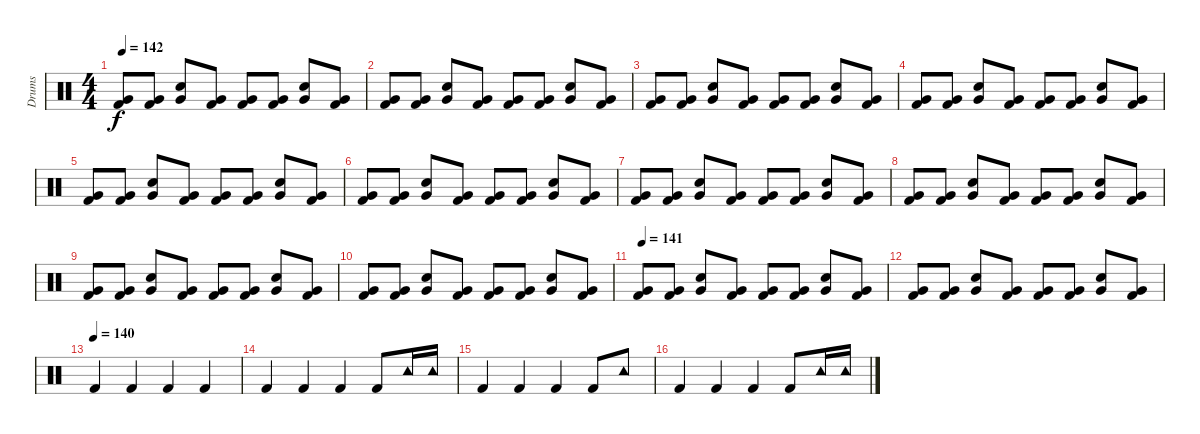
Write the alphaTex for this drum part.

\track ("Drums" "Drums") {instrument percussion}
\staff {score}
\articulation defaults
\ts (4 4)
\tempo 142
\clef neutral
\ks c
("Very Low Tom (hit)" "Kick (hit) 2").8{dy f} ("Very Low Tom (hit)" "Kick (hit) 2").8 ("Very Low Tom (hit)" "Snare (hit) 2").8 ("Very Low Tom (hit)" "Kick (hit) 2").8 ("Very Low Tom (hit)" "Kick (hit) 2").8 ("Very Low Tom (hit)" "Kick (hit) 2").8 ("Very Low Tom (hit)" "Snare (hit) 2").8 ("Very Low Tom (hit)" "Kick (hit) 2").8 |
("Very Low Tom (hit)" "Kick (hit) 2").8 ("Very Low Tom (hit)" "Kick (hit) 2").8 ("Very Low Tom (hit)" "Snare (hit) 2").8 ("Very Low Tom (hit)" "Kick (hit) 2").8 ("Very Low Tom (hit)" "Kick (hit) 2").8 ("Very Low Tom (hit)" "Kick (hit) 2").8 ("Very Low Tom (hit)" "Snare (hit) 2").8 ("Very Low Tom (hit)" "Kick (hit) 2").8 |
("Very Low Tom (hit)" "Kick (hit) 2").8 ("Very Low Tom (hit)" "Kick (hit) 2").8 ("Very Low Tom (hit)" "Snare (hit) 2").8 ("Very Low Tom (hit)" "Kick (hit) 2").8 ("Very Low Tom (hit)" "Kick (hit) 2").8 ("Very Low Tom (hit)" "Kick (hit) 2").8 ("Very Low Tom (hit)" "Snare (hit) 2").8 ("Very Low Tom (hit)" "Kick (hit) 2").8 |
("Very Low Tom (hit)" "Kick (hit) 2").8 ("Very Low Tom (hit)" "Kick (hit) 2").8 ("Very Low Tom (hit)" "Snare (hit) 2").8 ("Very Low Tom (hit)" "Kick (hit) 2").8 ("Very Low Tom (hit)" "Kick (hit) 2").8 ("Very Low Tom (hit)" "Kick (hit) 2").8 ("Very Low Tom (hit)" "Snare (hit) 2").8 ("Very Low Tom (hit)" "Kick (hit) 2").8 |
("Very Low Tom (hit)" "Kick (hit) 2").8 ("Very Low Tom (hit)" "Kick (hit) 2").8 ("Very Low Tom (hit)" "Snare (hit) 2").8 ("Very Low Tom (hit)" "Kick (hit) 2").8 ("Very Low Tom (hit)" "Kick (hit) 2").8 ("Very Low Tom (hit)" "Kick (hit) 2").8 ("Very Low Tom (hit)" "Snare (hit) 2").8 ("Very Low Tom (hit)" "Kick (hit) 2").8 |
("Very Low Tom (hit)" "Kick (hit) 2").8 ("Very Low Tom (hit)" "Kick (hit) 2").8 ("Very Low Tom (hit)" "Snare (hit) 2").8 ("Very Low Tom (hit)" "Kick (hit) 2").8 ("Very Low Tom (hit)" "Kick (hit) 2").8 ("Very Low Tom (hit)" "Kick (hit) 2").8 ("Very Low Tom (hit)" "Snare (hit) 2").8 ("Very Low Tom (hit)" "Kick (hit) 2").8 |
("Very Low Tom (hit)" "Kick (hit) 2").8 ("Very Low Tom (hit)" "Kick (hit) 2").8 ("Very Low Tom (hit)" "Snare (hit) 2").8 ("Very Low Tom (hit)" "Kick (hit) 2").8 ("Very Low Tom (hit)" "Kick (hit) 2").8 ("Very Low Tom (hit)" "Kick (hit) 2").8 ("Very Low Tom (hit)" "Snare (hit) 2").8 ("Very Low Tom (hit)" "Kick (hit) 2").8 |
("Very Low Tom (hit)" "Kick (hit) 2").8 ("Very Low Tom (hit)" "Kick (hit) 2").8 ("Very Low Tom (hit)" "Snare (hit) 2").8 ("Very Low Tom (hit)" "Kick (hit) 2").8 ("Very Low Tom (hit)" "Kick (hit) 2").8 ("Very Low Tom (hit)" "Kick (hit) 2").8 ("Very Low Tom (hit)" "Snare (hit) 2").8 ("Very Low Tom (hit)" "Kick (hit) 2").8 |
("Very Low Tom (hit)" "Kick (hit) 2").8 ("Very Low Tom (hit)" "Kick (hit) 2").8 ("Very Low Tom (hit)" "Snare (hit) 2").8 ("Very Low Tom (hit)" "Kick (hit) 2").8 ("Very Low Tom (hit)" "Kick (hit) 2").8 ("Very Low Tom (hit)" "Kick (hit) 2").8 ("Very Low Tom (hit)" "Snare (hit) 2").8 ("Very Low Tom (hit)" "Kick (hit) 2").8 |
("Very Low Tom (hit)" "Kick (hit) 2").8 ("Very Low Tom (hit)" "Kick (hit) 2").8 ("Very Low Tom (hit)" "Snare (hit) 2").8 ("Very Low Tom (hit)" "Kick (hit) 2").8 ("Very Low Tom (hit)" "Kick (hit) 2").8 ("Very Low Tom (hit)" "Kick (hit) 2").8 ("Very Low Tom (hit)" "Snare (hit) 2").8 ("Very Low Tom (hit)" "Kick (hit) 2").8 |
\tempo 141
("Very Low Tom (hit)" "Kick (hit) 2").8 ("Very Low Tom (hit)" "Kick (hit) 2").8 ("Very Low Tom (hit)" "Snare (hit) 2").8 ("Very Low Tom (hit)" "Kick (hit) 2").8 ("Very Low Tom (hit)" "Kick (hit) 2").8 ("Very Low Tom (hit)" "Kick (hit) 2").8 ("Very Low Tom (hit)" "Snare (hit) 2").8 ("Very Low Tom (hit)" "Kick (hit) 2").8 |
("Very Low Tom (hit)" "Kick (hit) 2").8 ("Very Low Tom (hit)" "Kick (hit) 2").8 ("Very Low Tom (hit)" "Snare (hit) 2").8 ("Very Low Tom (hit)" "Kick (hit) 2").8 ("Very Low Tom (hit)" "Kick (hit) 2").8 ("Very Low Tom (hit)" "Kick (hit) 2").8 ("Very Low Tom (hit)" "Snare (hit) 2").8 ("Very Low Tom (hit)" "Kick (hit) 2").8 |
\tempo (140)
"Kick (hit) 2".4 "Kick (hit) 2".4 "Kick (hit) 2".4 "Kick (hit) 2".4 |
"Kick (hit) 2".4 "Kick (hit) 2".4 "Kick (hit) 2".4 "Kick (hit) 2".8 "Tambourine (hit)".16 "Tambourine (hit)".16 |
"Kick (hit) 2".4 "Kick (hit) 2".4 "Kick (hit) 2".4 "Kick (hit) 2".8 "Tambourine (hit)".8 |
"Kick (hit) 2".4 "Kick (hit) 2".4 "Kick (hit) 2".4 "Kick (hit) 2".8 "Tambourine (hit)".16 "Tambourine (hit)".16
